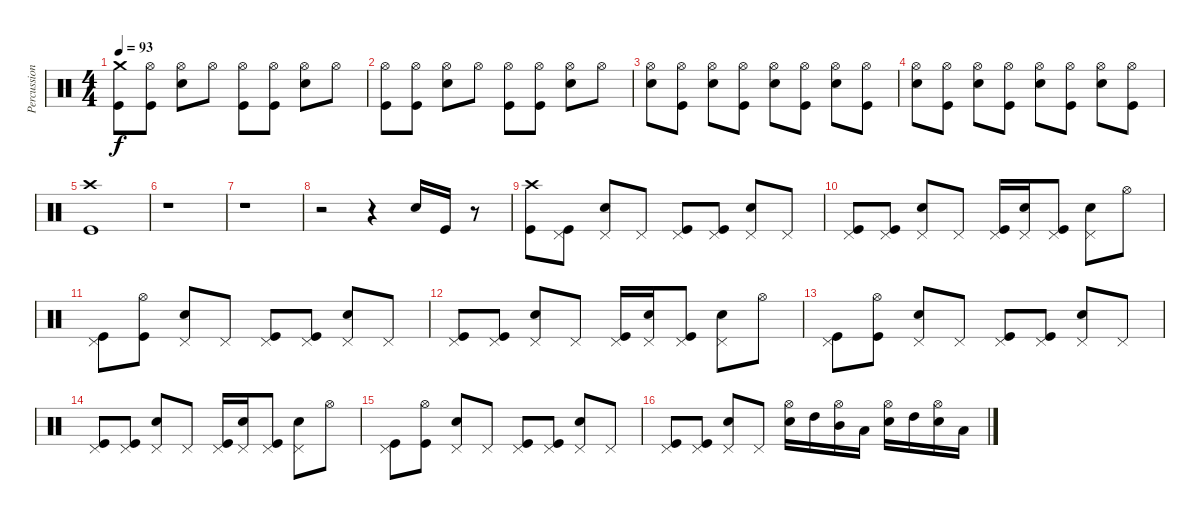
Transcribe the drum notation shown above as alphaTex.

\track ("Percussions" "Percussion") {instrument percussion}
\staff {score}
\articulation defaults
\ts (4 4)
\tempo 93
\clef neutral
\ks c
("Crash medium (hit)" "Kick (hit)").8{dy f} ("Hi-Hat (open)" "Kick (hit)").8 ("Hi-Hat (open)" "Snare (hit) 2").8 "Hi-Hat (open)".8 ("Hi-Hat (open)" "Kick (hit)").8 ("Hi-Hat (open)" "Kick (hit)").8 ("Hi-Hat (open)" "Snare (hit) 2").8 "Hi-Hat (open)".8 |
("Hi-Hat (open)" "Kick (hit)").8 ("Hi-Hat (open)" "Kick (hit)").8 ("Hi-Hat (open)" "Snare (hit) 2").8 "Hi-Hat (open)".8 ("Hi-Hat (open)" "Kick (hit)").8 ("Hi-Hat (open)" "Kick (hit)").8 ("Hi-Hat (open)" "Snare (hit) 2").8 "Hi-Hat (open)".8 |
("Hi-Hat (open)" "Snare (hit) 2").8 ("Hi-Hat (open)" "Kick (hit)").8 ("Hi-Hat (open)" "Snare (hit) 2").8 ("Hi-Hat (open)" "Kick (hit)").8 ("Hi-Hat (open)" "Snare (hit) 2").8 ("Hi-Hat (open)" "Kick (hit)").8 ("Hi-Hat (open)" "Snare (hit) 2").8 ("Hi-Hat (open)" "Kick (hit)").8 |
("Hi-Hat (open)" "Snare (hit) 2").8 ("Hi-Hat (open)" "Kick (hit)").8 ("Hi-Hat (open)" "Snare (hit) 2").8 ("Hi-Hat (open)" "Kick (hit)").8 ("Hi-Hat (open)" "Snare (hit) 2").8 ("Hi-Hat (open)" "Kick (hit)").8 ("Hi-Hat (open)" "Snare (hit) 2").8 ("Hi-Hat (open)" "Kick (hit)").8 |
("Crash high (hit)" "Kick (hit)").1 |
r.1 |
r.1 |
r.2 r.4 "Snare (hit) 2".16 "Kick (hit)".16 r.8 |
("Crash high (hit)" "Kick (hit)").8 ("Pedal Hi-Hat (hit)" "Kick (hit)").8 ("Pedal Hi-Hat (hit)" "Snare (hit) 2").8 "Pedal Hi-Hat (hit)".8 ("Pedal Hi-Hat (hit)" "Kick (hit)").8 ("Pedal Hi-Hat (hit)" "Kick (hit)").8 ("Pedal Hi-Hat (hit)" "Snare (hit) 2").8 "Pedal Hi-Hat (hit)".8 |
("Pedal Hi-Hat (hit)" "Kick (hit)").8 ("Pedal Hi-Hat (hit)" "Kick (hit)").8 ("Pedal Hi-Hat (hit)" "Snare (hit) 2").8 "Pedal Hi-Hat (hit)".8 ("Pedal Hi-Hat (hit)" "Kick (hit)").16 ("Pedal Hi-Hat (hit)" "Snare (hit) 2").16 ("Pedal Hi-Hat (hit)" "Kick (hit)").8 ("Pedal Hi-Hat (hit)" "Snare (hit) 2").8 "Hi-Hat (open)".8 |
("Pedal Hi-Hat (hit)" "Kick (hit)").8 ("Hi-Hat (open)" "Kick (hit)").8 ("Pedal Hi-Hat (hit)" "Snare (hit) 2").8 "Pedal Hi-Hat (hit)".8 ("Pedal Hi-Hat (hit)" "Kick (hit)").8 ("Pedal Hi-Hat (hit)" "Kick (hit)").8 ("Pedal Hi-Hat (hit)" "Snare (hit) 2").8 "Pedal Hi-Hat (hit)".8 |
("Pedal Hi-Hat (hit)" "Kick (hit)").8 ("Pedal Hi-Hat (hit)" "Kick (hit)").8 ("Pedal Hi-Hat (hit)" "Snare (hit) 2").8 "Pedal Hi-Hat (hit)".8 ("Pedal Hi-Hat (hit)" "Kick (hit)").16 ("Pedal Hi-Hat (hit)" "Snare (hit) 2").16 ("Pedal Hi-Hat (hit)" "Kick (hit)").8 ("Pedal Hi-Hat (hit)" "Snare (hit) 2").8 "Hi-Hat (open)".8 |
("Pedal Hi-Hat (hit)" "Kick (hit)").8 ("Hi-Hat (open)" "Kick (hit)").8 ("Pedal Hi-Hat (hit)" "Snare (hit) 2").8 "Pedal Hi-Hat (hit)".8 ("Pedal Hi-Hat (hit)" "Kick (hit)").8 ("Pedal Hi-Hat (hit)" "Kick (hit)").8 ("Pedal Hi-Hat (hit)" "Snare (hit) 2").8 "Pedal Hi-Hat (hit)".8 |
("Pedal Hi-Hat (hit)" "Kick (hit)").8 ("Pedal Hi-Hat (hit)" "Kick (hit)").8 ("Pedal Hi-Hat (hit)" "Snare (hit) 2").8 "Pedal Hi-Hat (hit)".8 ("Pedal Hi-Hat (hit)" "Kick (hit)").16 ("Pedal Hi-Hat (hit)" "Snare (hit) 2").16 ("Pedal Hi-Hat (hit)" "Kick (hit)").8 ("Pedal Hi-Hat (hit)" "Snare (hit) 2").8 "Hi-Hat (open)".8 |
("Pedal Hi-Hat (hit)" "Kick (hit)").8 ("Hi-Hat (open)" "Kick (hit)").8 ("Pedal Hi-Hat (hit)" "Snare (hit) 2").8 "Pedal Hi-Hat (hit)".8 ("Pedal Hi-Hat (hit)" "Kick (hit)").8 ("Pedal Hi-Hat (hit)" "Kick (hit)").8 ("Pedal Hi-Hat (hit)" "Snare (hit) 2").8 "Pedal Hi-Hat (hit)".8 |
("Pedal Hi-Hat (hit)" "Kick (hit)").8 ("Pedal Hi-Hat (hit)" "Kick (hit)").8 ("Pedal Hi-Hat (hit)" "Snare (hit) 2").8 "Pedal Hi-Hat (hit)".8 ("Hi-Hat (open)" "Snare (hit) 2").16 "High Tom (hit)".16 ("Hi-Hat (open)" "Mid Tom (hit)").16 "Low Tom (hit)".16 ("Hi-Hat (open)" "Snare (hit) 2").16 "High Tom (hit)".16 ("Hi-Hat (open)" "Snare (hit) 2").16 "Low Tom (hit)".16
